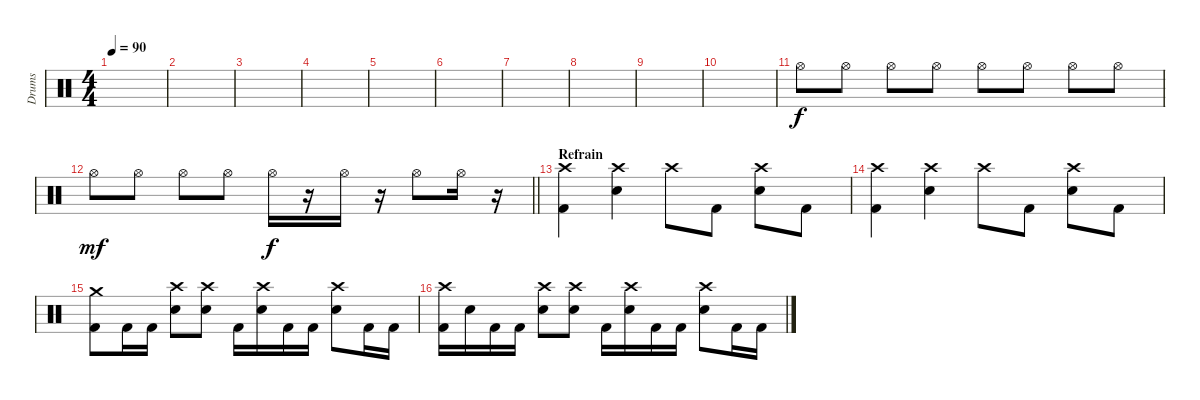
\track ("Drums" "Drums") {instrument percussion}
\staff {score}
\articulation defaults
\ts (4 4)
\tempo 90
\clef neutral
\ks c
|
|
|
|
|
|
|
|
|
|
"Hi-Hat (open)".8 "Hi-Hat (open)".8 "Hi-Hat (open)".8 "Hi-Hat (open)".8 "Hi-Hat (open)".8 "Hi-Hat (open)".8 "Hi-Hat (open)".8 "Hi-Hat (open)".8 |
\barLineRight lightlight "Hi-Hat (open)".8{dy mf} "Hi-Hat (open)".8 "Hi-Hat (open)".8 "Hi-Hat (open)".8 "Hi-Hat (open)".16{dy f}
r.16 "Hi-Hat (open)".16 r.16 "Hi-Hat (open)".8 "Hi-Hat (open)".16 r.16 |
\section ("" "Refrain")
("Crash high (hit)" "Kick (hit) 2").4 ("Snare (hit) 2" "Crash high (hit)").4 "Crash high (hit)".8 "Kick (hit) 2".8 ("Snare (hit) 2" "Crash high (hit)").8 "Kick (hit) 2".8 |
("Crash high (hit)" "Kick (hit) 2").4 ("Snare (hit) 2" "Crash high (hit)").4 "Crash high (hit)".8 "Kick (hit) 2".8 ("Snare (hit) 2" "Crash high (hit)").8 "Kick (hit) 2".8 |
("Crash medium (hit)" "Kick (hit) 2").8 "Kick (hit) 2".16 "Kick (hit) 2".16 ("Snare (hit) 2" "Crash high (hit)").8 ("Snare (hit) 2" "Crash high (hit)").8 "Kick (hit) 2".16 ("Snare (hit) 2" "Crash high (hit)").16 "Kick (hit) 2".16 "Kick (hit) 2".16 ("Snare (hit) 2" "Crash high (hit)").8 "Kick (hit) 2".16 "Kick (hit) 2".16 |
("Crash high (hit)" "Kick (hit) 2").16 "Snare (hit) 2".16 "Kick (hit) 2".16 "Kick (hit) 2".16 ("Snare (hit) 2" "Crash high (hit)").8 ("Snare (hit) 2" "Crash high (hit)").8 "Kick (hit) 2".16 ("Snare (hit) 2" "Crash high (hit)").16 "Kick (hit) 2".16 "Kick (hit) 2".16 ("Snare (hit) 2" "Crash high (hit)").8 "Kick (hit) 2".16 "Kick (hit) 2".16
